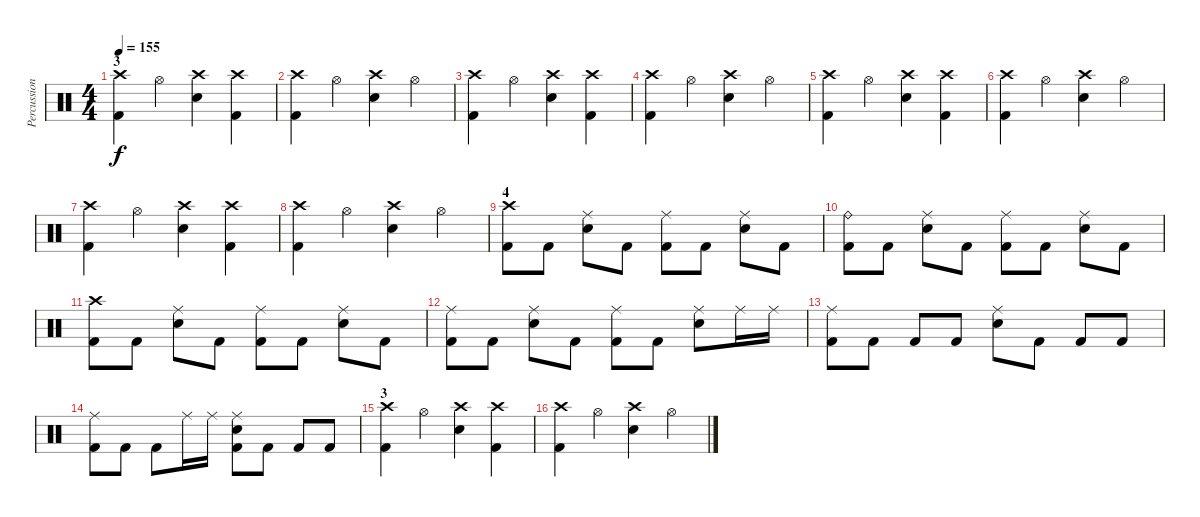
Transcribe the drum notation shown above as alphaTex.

\track ("Percussion" "Percussion") {instrument percussion}
\staff {score}
\articulation defaults
\ts (4 4)
\section ("" "3")
\tempo 155
\clef neutral
\ks c
("Crash high (hit)" "Kick (hit) 2").4{dy f} "Hi-Hat (open)".4 ("Crash high (hit)" "Snare (hit) 2").4 ("Crash high (hit)" "Kick (hit) 2").4 |
("Crash high (hit)" "Kick (hit) 2").4 "Hi-Hat (open)".4 ("Crash high (hit)" "Snare (hit) 2").4 "Hi-Hat (open)".4 |
("Crash high (hit)" "Kick (hit) 2").4 "Hi-Hat (open)".4 ("Crash high (hit)" "Snare (hit) 2").4 ("Crash high (hit)" "Kick (hit) 2").4 |
("Crash high (hit)" "Kick (hit) 2").4 "Hi-Hat (open)".4 ("Crash high (hit)" "Snare (hit) 2").4 "Hi-Hat (open)".4 |
("Crash high (hit)" "Kick (hit) 2").4 "Hi-Hat (open)".4 ("Crash high (hit)" "Snare (hit) 2").4 ("Crash high (hit)" "Kick (hit) 2").4 |
("Crash high (hit)" "Kick (hit) 2").4 "Hi-Hat (open)".4 ("Crash high (hit)" "Snare (hit) 2").4 "Hi-Hat (open)".4 |
("Crash high (hit)" "Kick (hit) 2").4 "Hi-Hat (open)".4 ("Crash high (hit)" "Snare (hit) 2").4 ("Crash high (hit)" "Kick (hit) 2").4 |
("Crash high (hit)" "Kick (hit) 2").4 "Hi-Hat (open)".4 ("Crash high (hit)" "Snare (hit) 2").4 "Hi-Hat (open)".4 |
\section ("" "4")
("Crash high (hit)" "Kick (hit) 2").8 "Kick (hit) 2".8 ("Ride (middle)" "Snare (hit) 2").8 "Kick (hit) 2".8 ("Ride (middle)" "Kick (hit) 2").8 "Kick (hit) 2".8 ("Ride (middle)" "Snare (hit) 2").8 "Kick (hit) 2".8 |
("Ride (bell)" "Kick (hit) 2").8 "Kick (hit) 2".8 ("Ride (middle)" "Snare (hit) 2").8 "Kick (hit) 2".8 ("Ride (middle)" "Kick (hit) 2").8 "Kick (hit) 2".8 ("Ride (middle)" "Snare (hit) 2").8 "Kick (hit) 2".8 |
("Crash high (hit)" "Kick (hit) 2").8 "Kick (hit) 2".8 ("Ride (middle)" "Snare (hit) 2").8 "Kick (hit) 2".8 ("Ride (middle)" "Kick (hit) 2").8 "Kick (hit) 2".8 ("Ride (middle)" "Snare (hit) 2").8 "Kick (hit) 2".8 |
("Ride (middle)" "Kick (hit) 2").8 "Kick (hit) 2".8 ("Ride (middle)" "Snare (hit) 2").8 "Kick (hit) 2".8 ("Ride (middle)" "Kick (hit) 2").8 "Kick (hit) 2".8 ("Ride (middle)" "Snare (hit) 2").8 "Ride (middle)".16 "Ride (middle)".16 |
("Ride (middle)" "Kick (hit) 2").8 "Kick (hit) 2".8 "Kick (hit) 2".8 "Kick (hit) 2".8 ("Ride (middle)" "Snare (hit) 2").8 "Kick (hit) 2".8 "Kick (hit) 2".8 "Kick (hit) 2".8 |
("Ride (middle)" "Kick (hit) 2").8 "Kick (hit) 2".8 "Kick (hit) 2".8 "Ride (middle)".16 "Ride (middle)".16 ("Ride (middle)" "Snare (hit) 2" "Kick (hit) 2").8 "Kick (hit) 2".8 "Kick (hit) 2".8 "Kick (hit) 2".8 |
\section ("" "3")
("Crash high (hit)" "Kick (hit) 2").4 "Hi-Hat (open)".4 ("Crash high (hit)" "Snare (hit) 2").4 ("Crash high (hit)" "Kick (hit) 2").4 |
("Crash high (hit)" "Kick (hit) 2").4 "Hi-Hat (open)".4 ("Crash high (hit)" "Snare (hit) 2").4 "Hi-Hat (open)".4
